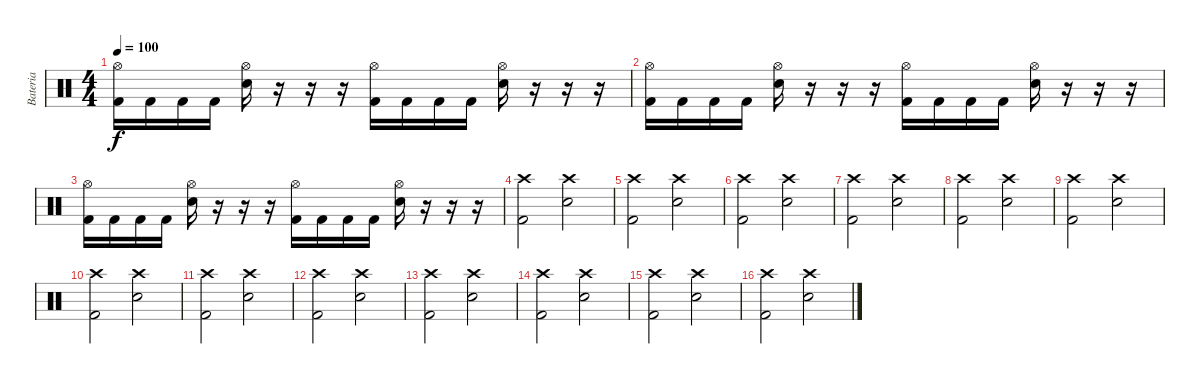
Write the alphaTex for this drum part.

\track ("Bateria" "Bateria") {instrument percussion}
\staff {score}
\articulation defaults
\ts (4 4)
\tempo 100
\clef neutral
\ks c
("Hi-Hat (open)" "Kick (hit) 2").16{dy f} "Kick (hit) 2".16 "Kick (hit) 2".16 "Kick (hit) 2".16 ("Hi-Hat (open)" "Snare (hit) 2").16 r.16 r.16 r.16 ("Hi-Hat (open)" "Kick (hit) 2").16 "Kick (hit) 2".16 "Kick (hit) 2".16 "Kick (hit) 2".16 ("Hi-Hat (open)" "Snare (hit) 2").16 r.16 r.16 r.16 |
("Hi-Hat (open)" "Kick (hit) 2").16 "Kick (hit) 2".16 "Kick (hit) 2".16 "Kick (hit) 2".16 ("Hi-Hat (open)" "Snare (hit) 2").16 r.16 r.16 r.16 ("Hi-Hat (open)" "Kick (hit) 2").16 "Kick (hit) 2".16 "Kick (hit) 2".16 "Kick (hit) 2".16 ("Hi-Hat (open)" "Snare (hit) 2").16 r.16 r.16 r.16 |
("Hi-Hat (open)" "Kick (hit) 2").16 "Kick (hit) 2".16 "Kick (hit) 2".16 "Kick (hit) 2".16 ("Hi-Hat (open)" "Snare (hit) 2").16 r.16 r.16 r.16 ("Hi-Hat (open)" "Kick (hit) 2").16 "Kick (hit) 2".16 "Kick (hit) 2".16 "Kick (hit) 2".16 ("Hi-Hat (open)" "Snare (hit) 2").16 r.16 r.16 r.16 |
("Crash high (hit)" "Kick (hit) 2").2 ("Crash high (hit)" "Snare (hit) 2").2 |
("Crash high (hit)" "Kick (hit) 2").2 ("Crash high (hit)" "Snare (hit) 2").2 |
("Crash high (hit)" "Kick (hit) 2").2 ("Crash high (hit)" "Snare (hit) 2").2 |
("Crash high (hit)" "Kick (hit) 2").2 ("Crash high (hit)" "Snare (hit) 2").2 |
("Crash high (hit)" "Kick (hit) 2").2 ("Crash high (hit)" "Snare (hit) 2").2 |
("Crash high (hit)" "Kick (hit) 2").2 ("Crash high (hit)" "Snare (hit) 2").2 |
("Crash high (hit)" "Kick (hit) 2").2 ("Crash high (hit)" "Snare (hit) 2").2 |
("Crash high (hit)" "Kick (hit) 2").2 ("Crash high (hit)" "Snare (hit) 2").2 |
("Crash high (hit)" "Kick (hit) 2").2 ("Crash high (hit)" "Snare (hit) 2").2 |
("Crash high (hit)" "Kick (hit) 2").2 ("Crash high (hit)" "Snare (hit) 2").2 |
("Crash high (hit)" "Kick (hit) 2").2 ("Crash high (hit)" "Snare (hit) 2").2 |
("Crash high (hit)" "Kick (hit) 2").2 ("Crash high (hit)" "Snare (hit) 2").2 |
("Crash high (hit)" "Kick (hit) 2").2 ("Crash high (hit)" "Snare (hit) 2").2
